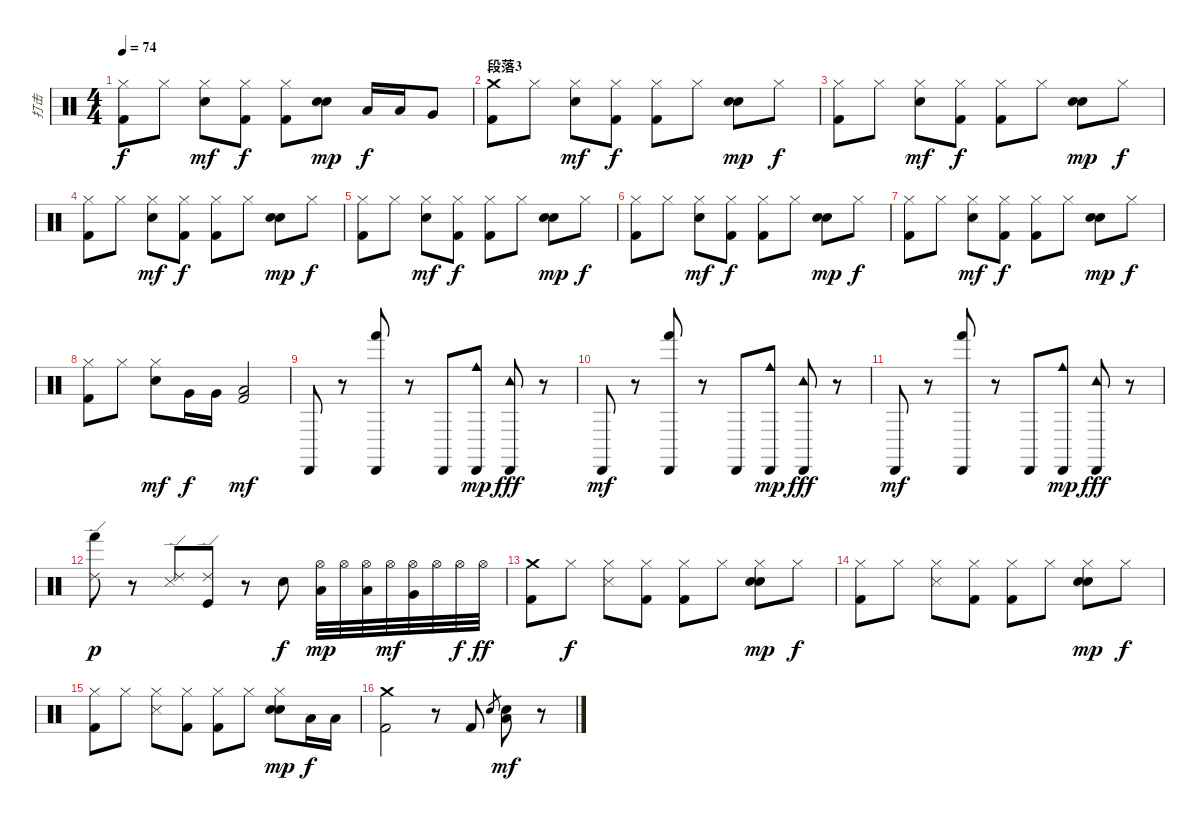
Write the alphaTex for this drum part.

\track ("打击" "打击") {instrument percussion}
\staff {score}
\articulation defaults
\ts (4 4)
\tempo 74
\clef neutral
\ks c
("Hi-Hat (closed)" "Kick (hit) 2").8{dy f} "Hi-Hat (closed)".8 ("Hi-Hat (closed)" "Electric Snare (hit)").8{dy mf} ("Hi-Hat (closed)" "Kick (hit) 2").8{dy f} ("Hi-Hat (closed)" "Kick (hit) 2").8 ("Snare (hit) 2" "Electric Snare (hit)").8{dy mp} "Low Tom (hit)".16{dy f} "Low Tom (hit)".16 "Very Low Tom (hit)".8 |
\section ("" "段落3")
("Crash medium (hit)" "Kick (hit) 2").8 "Hi-Hat (closed)".8 ("Hi-Hat (closed)" "Electric Snare (hit)").8{dy mf} ("Hi-Hat (closed)" "Kick (hit) 2").8{dy f} ("Hi-Hat (closed)" "Kick (hit) 2").8 "Hi-Hat (closed)".8 ("Snare (hit) 2" "Electric Snare (hit)").8{dy mp} "Hi-Hat (closed)".8{dy f} |
("Hi-Hat (closed)" "Kick (hit) 2").8 "Hi-Hat (closed)".8 ("Hi-Hat (closed)" "Electric Snare (hit)").8{dy mf} ("Hi-Hat (closed)" "Kick (hit) 2").8{dy f} ("Hi-Hat (closed)" "Kick (hit) 2").8 "Hi-Hat (closed)".8 ("Snare (hit) 2" "Electric Snare (hit)").8{dy mp} "Hi-Hat (closed)".8{dy f} |
("Hi-Hat (closed)" "Kick (hit) 2").8 "Hi-Hat (closed)".8 ("Hi-Hat (closed)" "Electric Snare (hit)").8{dy mf} ("Hi-Hat (closed)" "Kick (hit) 2").8{dy f} ("Hi-Hat (closed)" "Kick (hit) 2").8 "Hi-Hat (closed)".8 ("Snare (hit) 2" "Electric Snare (hit)").8{dy mp} "Hi-Hat (closed)".8{dy f} |
("Hi-Hat (closed)" "Kick (hit) 2").8 "Hi-Hat (closed)".8 ("Hi-Hat (closed)" "Electric Snare (hit)").8{dy mf} ("Hi-Hat (closed)" "Kick (hit) 2").8{dy f} ("Hi-Hat (closed)" "Kick (hit) 2").8 "Hi-Hat (closed)".8 ("Snare (hit) 2" "Electric Snare (hit)").8{dy mp} "Hi-Hat (closed)".8{dy f} |
("Hi-Hat (closed)" "Kick (hit) 2").8 "Hi-Hat (closed)".8 ("Hi-Hat (closed)" "Electric Snare (hit)").8{dy mf} ("Hi-Hat (closed)" "Kick (hit) 2").8{dy f} ("Hi-Hat (closed)" "Kick (hit) 2").8 "Hi-Hat (closed)".8 ("Snare (hit) 2" "Electric Snare (hit)").8{dy mp} "Hi-Hat (closed)".8{dy f} |
("Hi-Hat (closed)" "Kick (hit) 2").8 "Hi-Hat (closed)".8 ("Hi-Hat (closed)" "Electric Snare (hit)").8{dy mf} ("Hi-Hat (closed)" "Kick (hit) 2").8{dy f} ("Hi-Hat (closed)" "Kick (hit) 2").8 "Hi-Hat (closed)".8 ("Snare (hit) 2" "Electric Snare (hit)").8{dy mp} "Hi-Hat (closed)".8{dy f} |
("Hi-Hat (closed)" "Kick (hit) 2").8 "Hi-Hat (closed)".8 ("Hi-Hat (closed)" "Electric Snare (hit)").8{dy mf} "Very Low Tom (hit)".16{dy f} "Very Low Tom (hit)".16 ("Low Floor Tom (hit)" "Kick (hit) 2").2{dy mf} |
"Cabasa (hit)".8 r.8 ("Cabasa (hit)" "Hand (hit)").8 r.8 "Cabasa (hit)".8 ("Cabasa (hit)" "Cowbell medium (hit)").8{dy mp} ("Cabasa (hit)" "Tambourine (hit)").8{dy fff} r.8 |
"Cabasa (hit)".8{dy mf} r.8 ("Cabasa (hit)" "Hand (hit)").8 r.8 "Cabasa (hit)".8 ("Cabasa (hit)" "Cowbell medium (hit)").8{dy mp} ("Cabasa (hit)" "Tambourine (hit)").8{dy fff} r.8 |
"Cabasa (hit)".8{dy mf} r.8 ("Cabasa (hit)" "Hand (hit)").8 r.8 "Cabasa (hit)".8 ("Cabasa (hit)" "Cowbell medium (hit)").8{dy mp} ("Cabasa (hit)" "Tambourine (hit)").8{dy fff} r.8 |
("Ride (edge) 2" "Hand (hit)").8{dy p} r.8 ("Ride (edge) 2" "Snare (side stick) 3").8 ("Ride (edge) 2" "Kick (hit)").8 r.8 "Electric Snare (hit)".8{dy f} ("Hi-Hat (open)" "Low Tom (hit)").32{dy mp} "Hi-Hat (open)".32 ("Hi-Hat (open)" "Low Tom (hit)").32 "Hi-Hat (open)".32{dy mf} ("Hi-Hat (open)" "Very Low Tom (hit)").32 "Hi-Hat (open)".32 "Hi-Hat (open)".32{dy f} "Hi-Hat (open)".32{dy ff} |
("Crash medium (hit)" "Kick (hit) 2").8 "Hi-Hat (closed)".8{dy f} ("Hi-Hat (closed)" "Snare (side stick) 3").8 ("Hi-Hat (closed)" "Kick (hit) 2").8 ("Hi-Hat (closed)" "Kick (hit) 2").8 "Hi-Hat (closed)".8 ("Hi-Hat (closed)" "Snare (hit) 2" "Electric Snare (hit)").8{dy mp} "Hi-Hat (closed)".8{dy f} |
("Hi-Hat (closed)" "Kick (hit) 2").8 "Hi-Hat (closed)".8 ("Hi-Hat (closed)" "Snare (side stick) 3").8 ("Hi-Hat (closed)" "Kick (hit) 2").8 ("Hi-Hat (closed)" "Kick (hit) 2").8 "Hi-Hat (closed)".8 ("Hi-Hat (closed)" "Snare (hit) 2" "Electric Snare (hit)").8{dy mp} "Hi-Hat (closed)".8{dy f} |
("Hi-Hat (closed)" "Kick (hit) 2").8 "Hi-Hat (closed)".8 ("Hi-Hat (closed)" "Snare (side stick) 3").8 ("Hi-Hat (closed)" "Kick (hit) 2").8 ("Hi-Hat (closed)" "Kick (hit) 2").8 "Hi-Hat (closed)".8 ("Hi-Hat (closed)" "Snare (hit) 2" "Electric Snare (hit)").8{dy mp} "Low Tom (hit)".16{dy f} "Low Tom (hit)".16 |
("Crash medium (hit)" "Kick (hit) 2").2 r.8 "Kick (hit) 2".8 "Snare (hit) 2".8{gr} ("Snare (hit) 2" "Low Tom (hit)").8{dy mf} r.8
